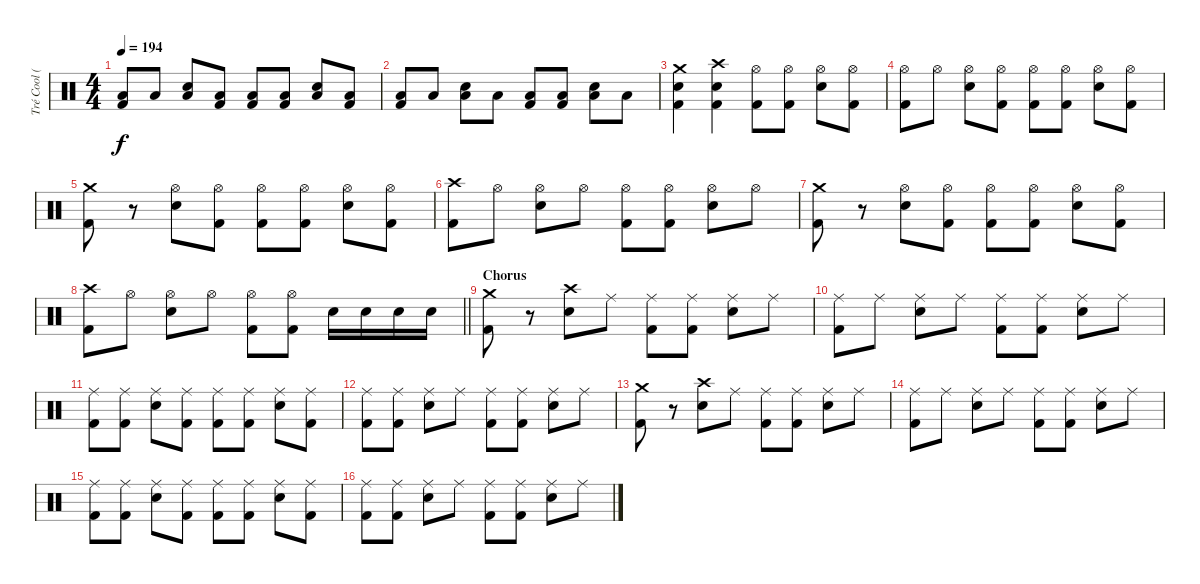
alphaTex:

\track ("Tré Cool (Drums)" "Tré Cool (") {instrument percussion}
\staff {score}
\articulation defaults
\ts (4 4)
\tempo 194
\clef neutral
\ks c
("Kick (hit) 2" "Low Floor Tom (hit)").8{dy f} "Low Floor Tom (hit)".8 ("Snare (hit) 2" "Low Floor Tom (hit)").8 ("Kick (hit) 2" "Low Floor Tom (hit)").8 ("Kick (hit) 2" "Low Floor Tom (hit)").8 ("Kick (hit) 2" "Low Floor Tom (hit)").8 ("Snare (hit) 2" "Low Floor Tom (hit)").8 ("Kick (hit) 2" "Low Floor Tom (hit)").8 |
("Kick (hit) 2" "Low Floor Tom (hit)").8 "Low Floor Tom (hit)".8 ("Snare (hit) 2" "Low Floor Tom (hit)").8 "Low Floor Tom (hit)".8 ("Kick (hit) 2" "Low Floor Tom (hit)").8 ("Kick (hit) 2" "Low Floor Tom (hit)").8 ("Snare (hit) 2" "Low Floor Tom (hit)").8 "Low Floor Tom (hit)".8 |
("Kick (hit) 2" "Snare (hit) 2" "Crash medium (hit)").4 ("Kick (hit) 2" "Snare (hit) 2" "Crash high (hit)").4 ("Kick (hit) 2" "Hi-Hat (open)").8 ("Kick (hit) 2" "Hi-Hat (open)").8 ("Snare (hit) 2" "Hi-Hat (open)").8 ("Kick (hit) 2" "Hi-Hat (open)").8 |
("Kick (hit) 2" "Hi-Hat (open)").8 "Hi-Hat (open)".8 ("Snare (hit) 2" "Hi-Hat (open)").8 ("Kick (hit) 2" "Hi-Hat (open)").8 ("Kick (hit) 2" "Hi-Hat (open)").8 ("Kick (hit) 2" "Hi-Hat (open)").8 ("Snare (hit) 2" "Hi-Hat (open)").8 ("Kick (hit) 2" "Hi-Hat (open)").8 |
("Kick (hit) 2" "Crash medium (hit)").8 r.8 ("Snare (hit) 2" "Hi-Hat (open)").8 ("Kick (hit) 2" "Hi-Hat (open)").8 ("Kick (hit) 2" "Hi-Hat (open)").8 ("Kick (hit) 2" "Hi-Hat (open)").8 ("Snare (hit) 2" "Hi-Hat (open)").8 ("Kick (hit) 2" "Hi-Hat (open)").8 |
("Kick (hit) 2" "Crash high (hit)").8 "Hi-Hat (open)".8 ("Snare (hit) 2" "Hi-Hat (open)").8 "Hi-Hat (open)".8 ("Kick (hit) 2" "Hi-Hat (open)").8 ("Kick (hit) 2" "Hi-Hat (open)").8 ("Snare (hit) 2" "Hi-Hat (open)").8 "Hi-Hat (open)".8 |
("Kick (hit) 2" "Crash medium (hit)").8 r.8 ("Snare (hit) 2" "Hi-Hat (open)").8 ("Kick (hit) 2" "Hi-Hat (open)").8 ("Kick (hit) 2" "Hi-Hat (open)").8 ("Kick (hit) 2" "Hi-Hat (open)").8 ("Snare (hit) 2" "Hi-Hat (open)").8 ("Kick (hit) 2" "Hi-Hat (open)").8 |
\barLineRight lightlight
("Kick (hit) 2" "Crash high (hit)").8 "Hi-Hat (open)".8 ("Snare (hit) 2" "Hi-Hat (open)").8 "Hi-Hat (open)".8 ("Kick (hit) 2" "Hi-Hat (open)").8 ("Kick (hit) 2" "Hi-Hat (open)").8 "Snare (hit) 2".16 "Snare (hit) 2".16 "Snare (hit) 2".16 "Snare (hit) 2".16 |
\section ("" "Chorus")
("Kick (hit) 2" "Crash medium (hit)").8 r.8 ("Snare (hit) 2" "Crash high (hit)").8 "Ride (middle)".8 ("Kick (hit) 2" "Ride (middle)").8 ("Kick (hit) 2" "Ride (middle)").8 ("Snare (hit) 2" "Ride (middle)").8 "Ride (middle)".8 |
("Kick (hit) 2" "Ride (middle)").8 "Ride (middle)".8 ("Snare (hit) 2" "Ride (middle)").8 "Ride (middle)".8 ("Kick (hit) 2" "Ride (middle)").8 ("Kick (hit) 2" "Ride (middle)").8 ("Snare (hit) 2" "Ride (middle)").8 "Ride (middle)".8 |
("Kick (hit) 2" "Ride (middle)").8 ("Kick (hit) 2" "Ride (middle)").8 ("Snare (hit) 2" "Ride (middle)").8 ("Kick (hit) 2" "Ride (middle)").8 ("Kick (hit) 2" "Ride (middle)").8 ("Kick (hit) 2" "Ride (middle)").8 ("Snare (hit) 2" "Ride (middle)").8 ("Kick (hit) 2" "Ride (middle)").8 |
("Kick (hit) 2" "Ride (middle)").8 ("Kick (hit) 2" "Ride (middle)").8 ("Snare (hit) 2" "Ride (middle)").8 "Ride (middle)".8 ("Kick (hit) 2" "Ride (middle)").8 ("Kick (hit) 2" "Ride (middle)").8 ("Snare (hit) 2" "Ride (middle)").8 "Ride (middle)".8 |
("Kick (hit) 2" "Crash medium (hit)").8 r.8 ("Snare (hit) 2" "Crash high (hit)").8 "Ride (middle)".8 ("Kick (hit) 2" "Ride (middle)").8 ("Kick (hit) 2" "Ride (middle)").8 ("Snare (hit) 2" "Ride (middle)").8 "Ride (middle)".8 |
("Kick (hit) 2" "Ride (middle)").8 "Ride (middle)".8 ("Snare (hit) 2" "Ride (middle)").8 "Ride (middle)".8 ("Kick (hit) 2" "Ride (middle)").8 ("Kick (hit) 2" "Ride (middle)").8 ("Snare (hit) 2" "Ride (middle)").8 "Ride (middle)".8 |
("Kick (hit) 2" "Ride (middle)").8 ("Kick (hit) 2" "Ride (middle)").8 ("Snare (hit) 2" "Ride (middle)").8 ("Kick (hit) 2" "Ride (middle)").8 ("Kick (hit) 2" "Ride (middle)").8 ("Kick (hit) 2" "Ride (middle)").8 ("Snare (hit) 2" "Ride (middle)").8 ("Kick (hit) 2" "Ride (middle)").8 |
("Kick (hit) 2" "Ride (middle)").8 ("Kick (hit) 2" "Ride (middle)").8 ("Snare (hit) 2" "Ride (middle)").8 "Ride (middle)".8 ("Kick (hit) 2" "Ride (middle)").8 ("Kick (hit) 2" "Ride (middle)").8 ("Snare (hit) 2" "Ride (middle)").8 "Ride (middle)".8
